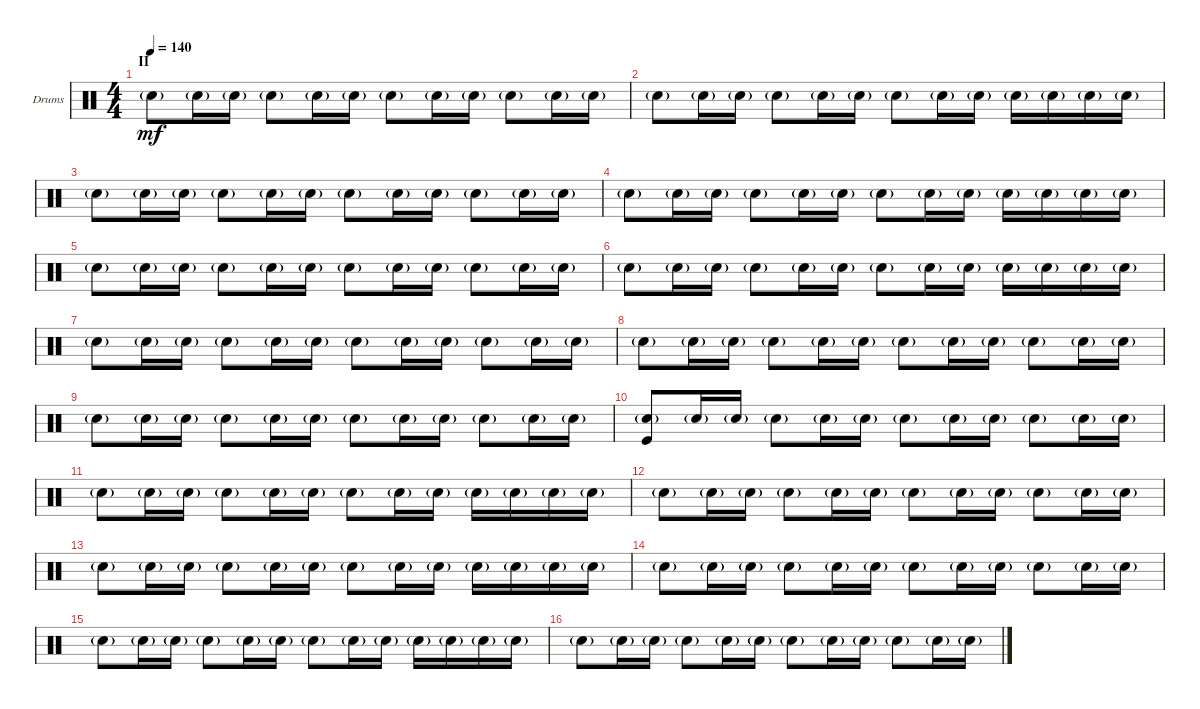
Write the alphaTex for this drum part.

\defaultSystemsLayout 4
\bracketExtendMode groupsimilarinstruments
\firstSystemTrackNameOrientation horizontal
\otherSystemsTrackNameOrientation horizontal
\track ("Drums" "Drums") {instrument percussion}
\staff {score}
\articulation defaults
\ts (4 4)
\section ("" "II")
\tempo 140
\clef neutral
\ks c "Snare (hit) 2"{g}.8{dy mf} "Snare (hit) 2"{g}.16 "Snare (hit) 2"{g}.16 "Snare (hit) 2"{g}.8 "Snare (hit) 2"{g}.16 "Snare (hit) 2"{g}.16 "Snare (hit) 2"{g}.8 "Snare (hit) 2"{g}.16 "Snare (hit) 2"{g}.16 "Snare (hit) 2"{g}.8 "Snare (hit) 2"{g}.16 "Snare (hit) 2"{g}.16
|
"Snare (hit) 2"{g}.8 "Snare (hit) 2"{g}.16 "Snare (hit) 2"{g}.16 "Snare (hit) 2"{g}.8 "Snare (hit) 2"{g}.16 "Snare (hit) 2"{g}.16 "Snare (hit) 2"{g}.8 "Snare (hit) 2"{g}.16 "Snare (hit) 2"{g}.16 "Snare (hit) 2"{g}.16 "Snare (hit) 2"{g}.16 "Snare (hit) 2"{g}.16 "Snare (hit) 2"{g}.16 |
"Snare (hit) 2"{g}.8 "Snare (hit) 2"{g}.16 "Snare (hit) 2"{g}.16 "Snare (hit) 2"{g}.8 "Snare (hit) 2"{g}.16 "Snare (hit) 2"{g}.16 "Snare (hit) 2"{g}.8 "Snare (hit) 2"{g}.16 "Snare (hit) 2"{g}.16 "Snare (hit) 2"{g}.8 "Snare (hit) 2"{g}.16 "Snare (hit) 2"{g}.16 |
"Snare (hit) 2"{g}.8 "Snare (hit) 2"{g}.16 "Snare (hit) 2"{g}.16 "Snare (hit) 2"{g}.8 "Snare (hit) 2"{g}.16 "Snare (hit) 2"{g}.16 "Snare (hit) 2"{g}.8 "Snare (hit) 2"{g}.16 "Snare (hit) 2"{g}.16 "Snare (hit) 2"{g}.16 "Snare (hit) 2"{g}.16 "Snare (hit) 2"{g}.16 "Snare (hit) 2"{g}.16 |
"Snare (hit) 2"{g}.8 "Snare (hit) 2"{g}.16 "Snare (hit) 2"{g}.16 "Snare (hit) 2"{g}.8 "Snare (hit) 2"{g}.16 "Snare (hit) 2"{g}.16 "Snare (hit) 2"{g}.8 "Snare (hit) 2"{g}.16 "Snare (hit) 2"{g}.16 "Snare (hit) 2"{g}.8 "Snare (hit) 2"{g}.16 "Snare (hit) 2"{g}.16 |
"Snare (hit) 2"{g}.8 "Snare (hit) 2"{g}.16 "Snare (hit) 2"{g}.16 "Snare (hit) 2"{g}.8 "Snare (hit) 2"{g}.16 "Snare (hit) 2"{g}.16 "Snare (hit) 2"{g}.8 "Snare (hit) 2"{g}.16 "Snare (hit) 2"{g}.16 "Snare (hit) 2"{g}.16 "Snare (hit) 2"{g}.16 "Snare (hit) 2"{g}.16 "Snare (hit) 2"{g}.16 |
"Snare (hit) 2"{g}.8 "Snare (hit) 2"{g}.16 "Snare (hit) 2"{g}.16 "Snare (hit) 2"{g}.8 "Snare (hit) 2"{g}.16 "Snare (hit) 2"{g}.16 "Snare (hit) 2"{g}.8 "Snare (hit) 2"{g}.16 "Snare (hit) 2"{g}.16 "Snare (hit) 2"{g}.8 "Snare (hit) 2"{g}.16 "Snare (hit) 2"{g}.16 |
"Snare (hit) 2"{g}.8 "Snare (hit) 2"{g}.16 "Snare (hit) 2"{g}.16 "Snare (hit) 2"{g}.8 "Snare (hit) 2"{g}.16 "Snare (hit) 2"{g}.16 "Snare (hit) 2"{g}.8 "Snare (hit) 2"{g}.16 "Snare (hit) 2"{g}.16 "Snare (hit) 2"{g}.8 "Snare (hit) 2"{g}.16 "Snare (hit) 2"{g}.16 |
"Snare (hit) 2"{g}.8 "Snare (hit) 2"{g}.16 "Snare (hit) 2"{g}.16 "Snare (hit) 2"{g}.8 "Snare (hit) 2"{g}.16 "Snare (hit) 2"{g}.16 "Snare (hit) 2"{g}.8 "Snare (hit) 2"{g}.16 "Snare (hit) 2"{g}.16 "Snare (hit) 2"{g}.8 "Snare (hit) 2"{g}.16 "Snare (hit) 2"{g}.16 |
("Snare (hit) 2"{g} "Kick (hit)").8 "Snare (hit) 2"{g}.16 "Snare (hit) 2"{g}.16 "Snare (hit) 2"{g}.8 "Snare (hit) 2"{g}.16 "Snare (hit) 2"{g}.16 "Snare (hit) 2"{g}.8 "Snare (hit) 2"{g}.16 "Snare (hit) 2"{g}.16 "Snare (hit) 2"{g}.8 "Snare (hit) 2"{g}.16 "Snare (hit) 2"{g}.16 |
"Snare (hit) 2"{g}.8 "Snare (hit) 2"{g}.16 "Snare (hit) 2"{g}.16 "Snare (hit) 2"{g}.8 "Snare (hit) 2"{g}.16 "Snare (hit) 2"{g}.16 "Snare (hit) 2"{g}.8 "Snare (hit) 2"{g}.16 "Snare (hit) 2"{g}.16 "Snare (hit) 2"{g}.16 "Snare (hit) 2"{g}.16 "Snare (hit) 2"{g}.16 "Snare (hit) 2"{g}.16 |
"Snare (hit) 2"{g}.8 "Snare (hit) 2"{g}.16 "Snare (hit) 2"{g}.16 "Snare (hit) 2"{g}.8 "Snare (hit) 2"{g}.16 "Snare (hit) 2"{g}.16 "Snare (hit) 2"{g}.8 "Snare (hit) 2"{g}.16 "Snare (hit) 2"{g}.16 "Snare (hit) 2"{g}.8 "Snare (hit) 2"{g}.16 "Snare (hit) 2"{g}.16 |
"Snare (hit) 2"{g}.8 "Snare (hit) 2"{g}.16 "Snare (hit) 2"{g}.16 "Snare (hit) 2"{g}.8 "Snare (hit) 2"{g}.16 "Snare (hit) 2"{g}.16 "Snare (hit) 2"{g}.8 "Snare (hit) 2"{g}.16 "Snare (hit) 2"{g}.16 "Snare (hit) 2"{g}.16 "Snare (hit) 2"{g}.16 "Snare (hit) 2"{g}.16 "Snare (hit) 2"{g}.16 |
"Snare (hit) 2"{g}.8 "Snare (hit) 2"{g}.16 "Snare (hit) 2"{g}.16 "Snare (hit) 2"{g}.8 "Snare (hit) 2"{g}.16 "Snare (hit) 2"{g}.16 "Snare (hit) 2"{g}.8 "Snare (hit) 2"{g}.16 "Snare (hit) 2"{g}.16 "Snare (hit) 2"{g}.8 "Snare (hit) 2"{g}.16 "Snare (hit) 2"{g}.16 |
"Snare (hit) 2"{g}.8 "Snare (hit) 2"{g}.16 "Snare (hit) 2"{g}.16 "Snare (hit) 2"{g}.8 "Snare (hit) 2"{g}.16 "Snare (hit) 2"{g}.16 "Snare (hit) 2"{g}.8 "Snare (hit) 2"{g}.16 "Snare (hit) 2"{g}.16 "Snare (hit) 2"{g}.16 "Snare (hit) 2"{g}.16 "Snare (hit) 2"{g}.16 "Snare (hit) 2"{g}.16 |
"Snare (hit) 2"{g}.8 "Snare (hit) 2"{g}.16 "Snare (hit) 2"{g}.16 "Snare (hit) 2"{g}.8 "Snare (hit) 2"{g}.16 "Snare (hit) 2"{g}.16 "Snare (hit) 2"{g}.8 "Snare (hit) 2"{g}.16 "Snare (hit) 2"{g}.16 "Snare (hit) 2"{g}.8 "Snare (hit) 2"{g}.16 "Snare (hit) 2"{g}.16
